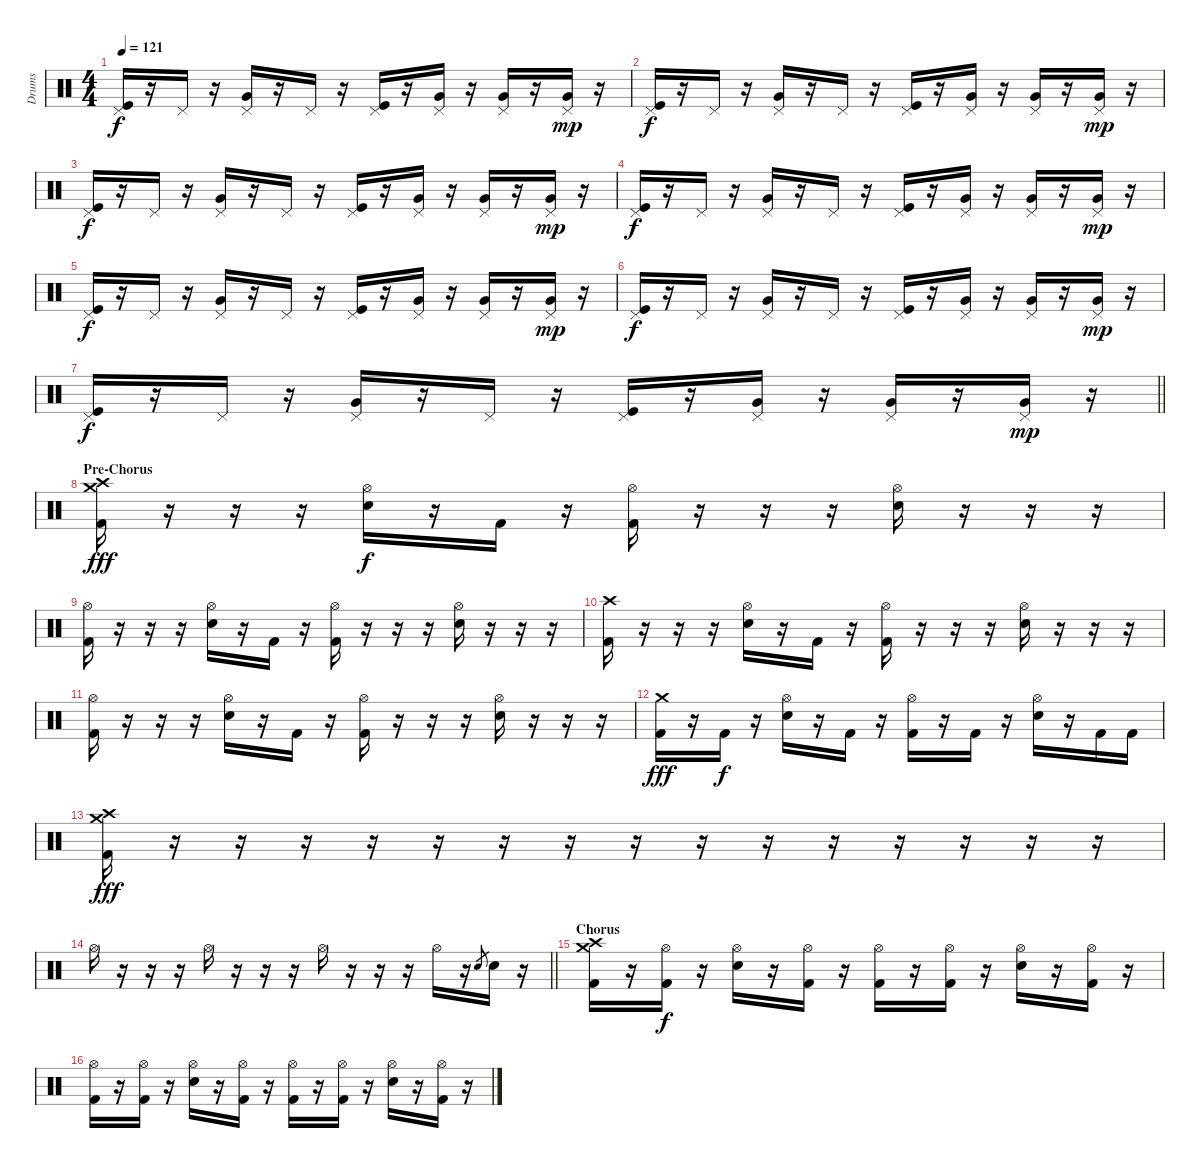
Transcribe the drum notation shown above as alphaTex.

\track ("Drums" "Drums") {instrument percussion}
\staff {score}
\articulation defaults
\ts (4 4)
\tempo 121
\clef neutral
\ks c
("Pedal Hi-Hat (hit)" "Kick (hit)").16{dy f} r.16 "Pedal Hi-Hat (hit)".16 r.16 ("Pedal Hi-Hat (hit)" "Very Low Tom (hit)").16 r.16 "Pedal Hi-Hat (hit)".16 r.16 ("Pedal Hi-Hat (hit)" "Kick (hit)").16 r.16 ("Pedal Hi-Hat (hit)" "Very Low Tom (hit)").16 r.16 ("Pedal Hi-Hat (hit)" "Very Low Tom (hit)").16 r.16 ("Pedal Hi-Hat (hit)" "Very Low Tom (hit)").16{dy mp} r.16 |
("Pedal Hi-Hat (hit)" "Kick (hit)").16{dy f} r.16 "Pedal Hi-Hat (hit)".16 r.16 ("Pedal Hi-Hat (hit)" "Very Low Tom (hit)").16 r.16 "Pedal Hi-Hat (hit)".16 r.16 ("Pedal Hi-Hat (hit)" "Kick (hit)").16 r.16 ("Pedal Hi-Hat (hit)" "Very Low Tom (hit)").16 r.16 ("Pedal Hi-Hat (hit)" "Very Low Tom (hit)").16 r.16 ("Pedal Hi-Hat (hit)" "Very Low Tom (hit)").16{dy mp} r.16 |
("Pedal Hi-Hat (hit)" "Kick (hit)").16{dy f} r.16 "Pedal Hi-Hat (hit)".16 r.16 ("Pedal Hi-Hat (hit)" "Very Low Tom (hit)").16 r.16 "Pedal Hi-Hat (hit)".16 r.16 ("Pedal Hi-Hat (hit)" "Kick (hit)").16 r.16 ("Pedal Hi-Hat (hit)" "Very Low Tom (hit)").16 r.16 ("Pedal Hi-Hat (hit)" "Very Low Tom (hit)").16 r.16 ("Pedal Hi-Hat (hit)" "Very Low Tom (hit)").16{dy mp} r.16 |
("Pedal Hi-Hat (hit)" "Kick (hit)").16{dy f} r.16 "Pedal Hi-Hat (hit)".16 r.16 ("Pedal Hi-Hat (hit)" "Very Low Tom (hit)").16 r.16 "Pedal Hi-Hat (hit)".16 r.16 ("Pedal Hi-Hat (hit)" "Kick (hit)").16 r.16 ("Pedal Hi-Hat (hit)" "Very Low Tom (hit)").16 r.16 ("Pedal Hi-Hat (hit)" "Very Low Tom (hit)").16 r.16 ("Pedal Hi-Hat (hit)" "Very Low Tom (hit)").16{dy mp} r.16 |
("Pedal Hi-Hat (hit)" "Kick (hit)").16{dy f} r.16 "Pedal Hi-Hat (hit)".16 r.16 ("Pedal Hi-Hat (hit)" "Very Low Tom (hit)").16 r.16 "Pedal Hi-Hat (hit)".16 r.16 ("Pedal Hi-Hat (hit)" "Kick (hit)").16 r.16 ("Pedal Hi-Hat (hit)" "Very Low Tom (hit)").16 r.16 ("Pedal Hi-Hat (hit)" "Very Low Tom (hit)").16 r.16 ("Pedal Hi-Hat (hit)" "Very Low Tom (hit)").16{dy mp} r.16 |
("Pedal Hi-Hat (hit)" "Kick (hit)").16{dy f} r.16 "Pedal Hi-Hat (hit)".16 r.16 ("Pedal Hi-Hat (hit)" "Very Low Tom (hit)").16 r.16 "Pedal Hi-Hat (hit)".16 r.16 ("Pedal Hi-Hat (hit)" "Kick (hit)").16 r.16 ("Pedal Hi-Hat (hit)" "Very Low Tom (hit)").16 r.16 ("Pedal Hi-Hat (hit)" "Very Low Tom (hit)").16 r.16 ("Pedal Hi-Hat (hit)" "Very Low Tom (hit)").16{dy mp} r.16 |
\barLineRight lightlight
("Pedal Hi-Hat (hit)" "Kick (hit)").16{dy f} r.16 "Pedal Hi-Hat (hit)".16 r.16 ("Pedal Hi-Hat (hit)" "Very Low Tom (hit)").16 r.16 "Pedal Hi-Hat (hit)".16 r.16 ("Pedal Hi-Hat (hit)" "Kick (hit)").16 r.16 ("Pedal Hi-Hat (hit)" "Very Low Tom (hit)").16 r.16 ("Pedal Hi-Hat (hit)" "Very Low Tom (hit)").16 r.16 ("Pedal Hi-Hat (hit)" "Very Low Tom (hit)").16{dy mp} r.16 |
\section ("" "Pre-Chorus")
("Crash high (hit)" "Crash medium (hit)" "Kick (hit) 2").16{dy fff volume 14} r.16 r.16 r.16 ("Hi-Hat (open)" "Electric Snare (hit)").16{dy f} r.16 "Kick (hit) 2".16 r.16 ("Hi-Hat (open)" "Kick (hit) 2").16 r.16 r.16 r.16 ("Hi-Hat (open)" "Electric Snare (hit)").16 r.16 r.16 r.16 |
("Hi-Hat (open)" "Kick (hit) 2").16 r.16 r.16 r.16 ("Hi-Hat (open)" "Electric Snare (hit)").16 r.16 "Kick (hit) 2".16 r.16 ("Hi-Hat (open)" "Kick (hit) 2").16 r.16 r.16 r.16 ("Hi-Hat (open)" "Electric Snare (hit)").16 r.16 r.16 r.16 |
("Crash high (hit)" "Kick (hit) 2").16 r.16 r.16 r.16 ("Hi-Hat (open)" "Electric Snare (hit)").16 r.16 "Kick (hit) 2".16 r.16 ("Hi-Hat (open)" "Kick (hit) 2").16 r.16 r.16 r.16 ("Hi-Hat (open)" "Electric Snare (hit)").16 r.16 r.16 r.16 |
("Hi-Hat (open)" "Kick (hit) 2").16 r.16 r.16 r.16 ("Hi-Hat (open)" "Electric Snare (hit)").16 r.16 "Kick (hit) 2".16 r.16 ("Hi-Hat (open)" "Kick (hit) 2").16 r.16 r.16 r.16 ("Hi-Hat (open)" "Electric Snare (hit)").16 r.16 r.16 r.16 |
("Crash medium (hit)" "Kick (hit) 2").16{dy fff} r.16 "Kick (hit) 2".16{dy f} r.16 ("Hi-Hat (open)" "Electric Snare (hit)").16 r.16 "Kick (hit) 2".16 r.16 ("Hi-Hat (open)" "Kick (hit) 2").16 r.16 "Kick (hit) 2".16 r.16 ("Hi-Hat (open)" "Electric Snare (hit)").16 r.16 "Kick (hit) 2".16 "Kick (hit) 2".16 |
("Crash high (hit)" "Crash medium (hit)" "Kick (hit) 2").16{dy fff} r.16 r.16 r.16 r.16 r.16 r.16 r.16 r.16 r.16 r.16 r.16 r.16 r.16 r.16 r.16 |
\barLineRight lightlight "Hi-Hat (open)".16
r.16 r.16 r.16 "Hi-Hat (open)".16 r.16 r.16 r.16 "Hi-Hat (open)".16 r.16 r.16 r.16 "Hi-Hat (open)".16 r.16 "Electric Snare (hit)".8{gr} "Electric Snare (hit)".16 r.16 |
\section ("" "Chorus")
("Crash high (hit)" "Crash medium (hit)" "Kick (hit) 2").16 r.16 ("Hi-Hat (open)" "Kick (hit) 2").16{dy f} r.16 ("Hi-Hat (open)" "Electric Snare (hit)").16 r.16 ("Hi-Hat (open)" "Kick (hit) 2").16 r.16 ("Hi-Hat (open)" "Kick (hit) 2").16 r.16 ("Hi-Hat (open)" "Kick (hit) 2").16 r.16 ("Hi-Hat (open)" "Electric Snare (hit)").16 r.16 ("Hi-Hat (open)" "Kick (hit) 2").16 r.16 |
("Hi-Hat (open)" "Kick (hit) 2").16 r.16 ("Hi-Hat (open)" "Kick (hit) 2").16 r.16 ("Hi-Hat (open)" "Electric Snare (hit)").16 r.16 ("Hi-Hat (open)" "Kick (hit) 2").16 r.16 ("Hi-Hat (open)" "Kick (hit) 2").16 r.16 ("Hi-Hat (open)" "Kick (hit) 2").16 r.16 ("Hi-Hat (open)" "Electric Snare (hit)").16 r.16 ("Hi-Hat (open)" "Kick (hit) 2").16 r.16
